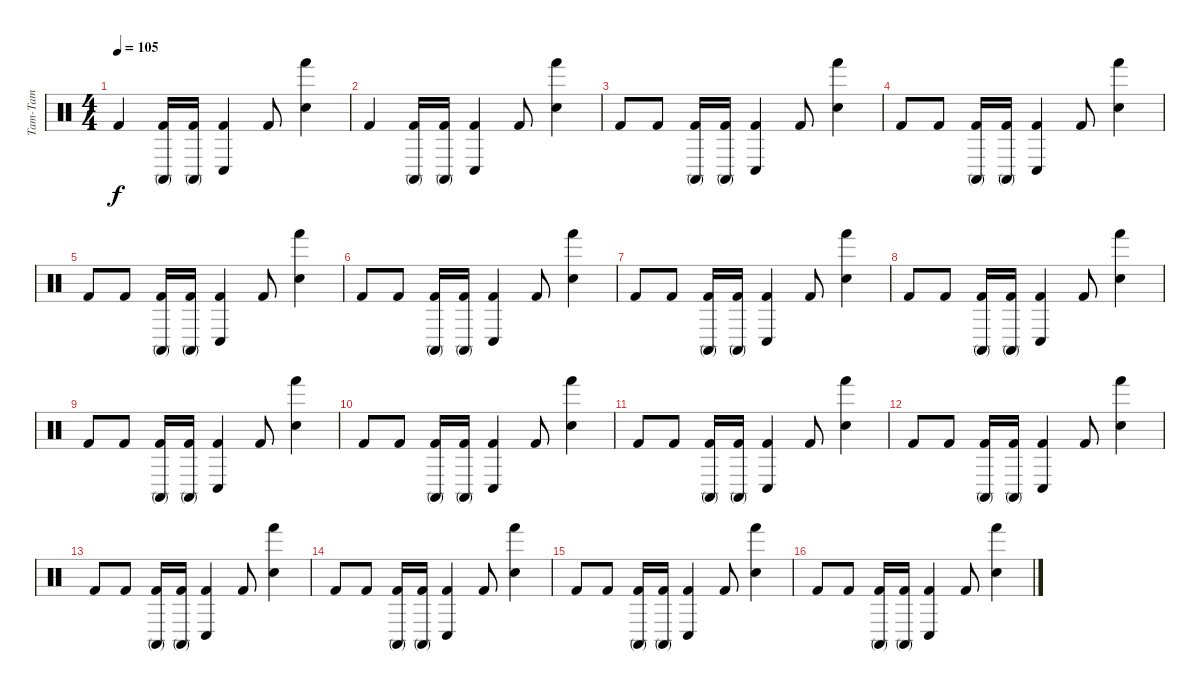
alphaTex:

\track ("Tam-Tam" "Tam-Tam") {instrument percussion}
\staff {score}
\articulation defaults
\ts (4 4)
\tempo 105
\clef neutral
\ks c "Kick (hit) 2".4{dy f}
("Conga high (mute)" "Kick (hit) 2").16 ("Conga high (mute)" "Kick (hit) 2").16 ("Conga low (hit)" "Kick (hit) 2").4 "Kick (hit) 2".8 ("Hand (hit)" "Electric Snare (hit)").4 |
"Kick (hit) 2".4 ("Conga high (mute)" "Kick (hit) 2").16 ("Conga high (mute)" "Kick (hit) 2").16 ("Conga low (hit)" "Kick (hit) 2").4 "Kick (hit) 2".8 ("Hand (hit)" "Electric Snare (hit)").4 |
"Kick (hit) 2".8 "Kick (hit) 2".8 ("Conga high (mute)" "Kick (hit) 2").16 ("Conga high (mute)" "Kick (hit) 2").16 ("Conga low (hit)" "Kick (hit) 2").4 "Kick (hit) 2".8 ("Hand (hit)" "Electric Snare (hit)").4 |
"Kick (hit) 2".8 "Kick (hit) 2".8 ("Conga high (mute)" "Kick (hit) 2").16 ("Conga high (mute)" "Kick (hit) 2").16 ("Conga low (hit)" "Kick (hit) 2").4 "Kick (hit) 2".8 ("Hand (hit)" "Electric Snare (hit)").4 |
"Kick (hit) 2".8 "Kick (hit) 2".8 ("Conga high (mute)" "Kick (hit) 2").16 ("Conga high (mute)" "Kick (hit) 2").16 ("Conga low (hit)" "Kick (hit) 2").4 "Kick (hit) 2".8 ("Hand (hit)" "Electric Snare (hit)").4 |
"Kick (hit) 2".8 "Kick (hit) 2".8 ("Conga high (mute)" "Kick (hit) 2").16 ("Conga high (mute)" "Kick (hit) 2").16 ("Conga low (hit)" "Kick (hit) 2").4 "Kick (hit) 2".8 ("Hand (hit)" "Electric Snare (hit)").4 |
"Kick (hit) 2".8 "Kick (hit) 2".8 ("Conga high (mute)" "Kick (hit) 2").16 ("Conga high (mute)" "Kick (hit) 2").16 ("Conga low (hit)" "Kick (hit) 2").4 "Kick (hit) 2".8 ("Hand (hit)" "Electric Snare (hit)").4 |
"Kick (hit) 2".8 "Kick (hit) 2".8 ("Conga high (mute)" "Kick (hit) 2").16 ("Conga high (mute)" "Kick (hit) 2").16 ("Conga low (hit)" "Kick (hit) 2").4 "Kick (hit) 2".8 ("Hand (hit)" "Electric Snare (hit)").4 |
"Kick (hit) 2".8 "Kick (hit) 2".8 ("Conga high (mute)" "Kick (hit) 2").16 ("Conga high (mute)" "Kick (hit) 2").16 ("Conga low (hit)" "Kick (hit) 2").4 "Kick (hit) 2".8 ("Hand (hit)" "Electric Snare (hit)").4 |
"Kick (hit) 2".8 "Kick (hit) 2".8 ("Conga high (mute)" "Kick (hit) 2").16 ("Conga high (mute)" "Kick (hit) 2").16 ("Conga low (hit)" "Kick (hit) 2").4 "Kick (hit) 2".8 ("Hand (hit)" "Electric Snare (hit)").4 |
"Kick (hit) 2".8 "Kick (hit) 2".8 ("Conga high (mute)" "Kick (hit) 2").16 ("Conga high (mute)" "Kick (hit) 2").16 ("Conga low (hit)" "Kick (hit) 2").4 "Kick (hit) 2".8 ("Hand (hit)" "Electric Snare (hit)").4 |
"Kick (hit) 2".8 "Kick (hit) 2".8 ("Conga high (mute)" "Kick (hit) 2").16 ("Conga high (mute)" "Kick (hit) 2").16 ("Conga low (hit)" "Kick (hit) 2").4 "Kick (hit) 2".8 ("Hand (hit)" "Electric Snare (hit)").4 |
"Kick (hit) 2".8 "Kick (hit) 2".8 ("Conga high (mute)" "Kick (hit) 2").16 ("Conga high (mute)" "Kick (hit) 2").16 ("Conga low (hit)" "Kick (hit) 2").4 "Kick (hit) 2".8 ("Hand (hit)" "Electric Snare (hit)").4 |
"Kick (hit) 2".8 "Kick (hit) 2".8 ("Conga high (mute)" "Kick (hit) 2").16 ("Conga high (mute)" "Kick (hit) 2").16 ("Conga low (hit)" "Kick (hit) 2").4 "Kick (hit) 2".8 ("Hand (hit)" "Electric Snare (hit)").4 |
"Kick (hit) 2".8 "Kick (hit) 2".8 ("Conga high (mute)" "Kick (hit) 2").16 ("Conga high (mute)" "Kick (hit) 2").16 ("Conga low (hit)" "Kick (hit) 2").4 "Kick (hit) 2".8 ("Hand (hit)" "Electric Snare (hit)").4 |
"Kick (hit) 2".8 "Kick (hit) 2".8 ("Conga high (mute)" "Kick (hit) 2").16 ("Conga high (mute)" "Kick (hit) 2").16 ("Conga low (hit)" "Kick (hit) 2").4 "Kick (hit) 2".8 ("Hand (hit)" "Electric Snare (hit)").4
